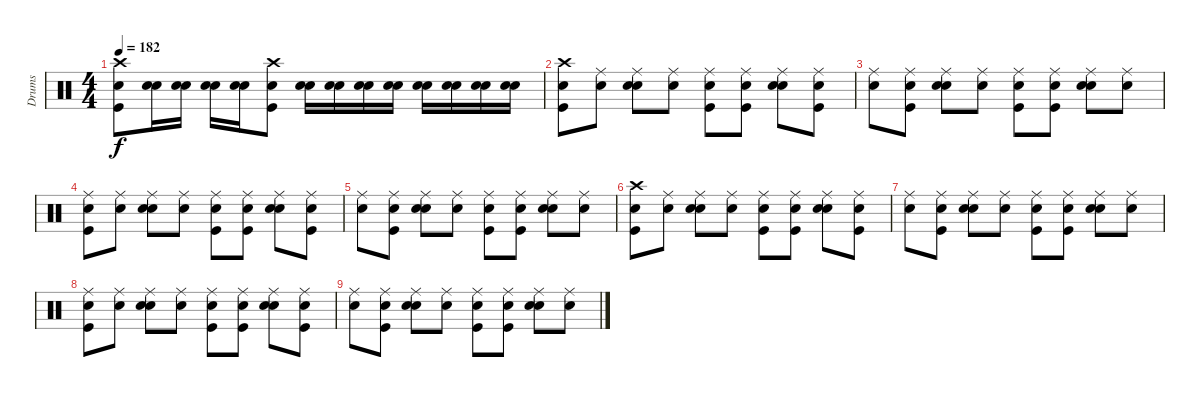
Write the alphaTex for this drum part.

\track ("Drums" "Drums") {instrument percussion}
\staff {score}
\articulation defaults
\ts (4 4)
\tempo 182
\clef neutral
\ks c
("Snare (hit)" "Kick (hit)" "Crash high (hit)").8{dy f} ("Snare (hit)" "Electric Snare (hit)").16 ("Snare (hit)" "Electric Snare (hit)").16 ("Snare (hit)" "Electric Snare (hit)").16 ("Snare (hit)" "Electric Snare (hit)").16 ("Snare (hit)" "Kick (hit)" "Crash high (hit)").8 ("Snare (hit)" "Electric Snare (hit)").16 ("Snare (hit)" "Electric Snare (hit)").16 ("Snare (hit)" "Electric Snare (hit)").16 ("Snare (hit)" "Electric Snare (hit)").16 ("Snare (hit)" "Electric Snare (hit)").16 ("Snare (hit)" "Electric Snare (hit)").16 ("Snare (hit)" "Electric Snare (hit)").16 ("Snare (hit)" "Electric Snare (hit)").16 |
("Snare (hit)" "Kick (hit)" "Crash high (hit)").8 ("Snare (hit)" "Ride (middle)").8 ("Snare (hit)" "Electric Snare (hit)" "Ride (middle)").8 ("Snare (hit)" "Ride (middle)").8 ("Snare (hit)" "Kick (hit)" "Ride (middle)").8 ("Snare (hit)" "Kick (hit)" "Ride (middle)").8 ("Snare (hit)" "Electric Snare (hit)" "Ride (middle)").8 ("Snare (hit)" "Kick (hit)" "Ride (middle)").8 |
("Snare (hit)" "Ride (middle)").8 ("Snare (hit)" "Kick (hit)" "Ride (middle)").8 ("Snare (hit)" "Electric Snare (hit)" "Ride (middle)").8 ("Snare (hit)" "Ride (middle)").8 ("Snare (hit)" "Kick (hit)" "Ride (middle)").8 ("Snare (hit)" "Kick (hit)" "Ride (middle)").8 ("Snare (hit)" "Electric Snare (hit)" "Ride (middle)").8 ("Snare (hit)" "Ride (middle)").8 |
("Snare (hit)" "Kick (hit)" "Ride (middle)").8 ("Snare (hit)" "Ride (middle)").8 ("Snare (hit)" "Electric Snare (hit)" "Ride (middle)").8 ("Snare (hit)" "Ride (middle)").8 ("Snare (hit)" "Kick (hit)" "Ride (middle)").8 ("Snare (hit)" "Kick (hit)" "Ride (middle)").8 ("Snare (hit)" "Electric Snare (hit)" "Ride (middle)").8 ("Snare (hit)" "Kick (hit)" "Ride (middle)").8 |
("Snare (hit)" "Ride (middle)").8{volume 11} ("Snare (hit)" "Kick (hit)" "Ride (middle)").8 ("Snare (hit)" "Electric Snare (hit)" "Ride (middle)").8 ("Snare (hit)" "Ride (middle)").8 ("Snare (hit)" "Kick (hit)" "Ride (middle)").8{volume 10} ("Snare (hit)" "Kick (hit)" "Ride (middle)").8 ("Snare (hit)" "Electric Snare (hit)" "Ride (middle)").8 ("Snare (hit)" "Ride (middle)").8 |
("Snare (hit)" "Kick (hit)" "Crash high (hit)").8{volume 8} ("Snare (hit)" "Ride (middle)").8 ("Snare (hit)" "Electric Snare (hit)" "Ride (middle)").8 ("Snare (hit)" "Ride (middle)").8 ("Snare (hit)" "Kick (hit)" "Ride (middle)").8{volume 6} ("Snare (hit)" "Kick (hit)" "Ride (middle)").8 ("Snare (hit)" "Electric Snare (hit)" "Ride (middle)").8 ("Snare (hit)" "Kick (hit)" "Ride (middle)").8 |
("Snare (hit)" "Ride (middle)").8{volume 5} ("Snare (hit)" "Kick (hit)" "Ride (middle)").8 ("Snare (hit)" "Electric Snare (hit)" "Ride (middle)").8 ("Snare (hit)" "Ride (middle)").8 ("Snare (hit)" "Kick (hit)" "Ride (middle)").8 ("Snare (hit)" "Kick (hit)" "Ride (middle)").8 ("Snare (hit)" "Electric Snare (hit)" "Ride (middle)").8 ("Snare (hit)" "Ride (middle)").8 |
("Snare (hit)" "Kick (hit)" "Ride (middle)").8{volume 3} ("Snare (hit)" "Ride (middle)").8 ("Snare (hit)" "Electric Snare (hit)" "Ride (middle)").8 ("Snare (hit)" "Ride (middle)").8 ("Snare (hit)" "Kick (hit)" "Ride (middle)").8{volume 2} ("Snare (hit)" "Kick (hit)" "Ride (middle)").8 ("Snare (hit)" "Electric Snare (hit)" "Ride (middle)").8 ("Snare (hit)" "Kick (hit)" "Ride (middle)").8 |
("Snare (hit)" "Ride (middle)").8 ("Snare (hit)" "Kick (hit)" "Ride (middle)").8 ("Snare (hit)" "Electric Snare (hit)" "Ride (middle)").8 ("Snare (hit)" "Ride (middle)").8 ("Snare (hit)" "Kick (hit)" "Ride (middle)").8{volume 0} ("Snare (hit)" "Kick (hit)" "Ride (middle)").8 ("Snare (hit)" "Electric Snare (hit)" "Ride (middle)").8 ("Snare (hit)" "Ride (middle)").8
